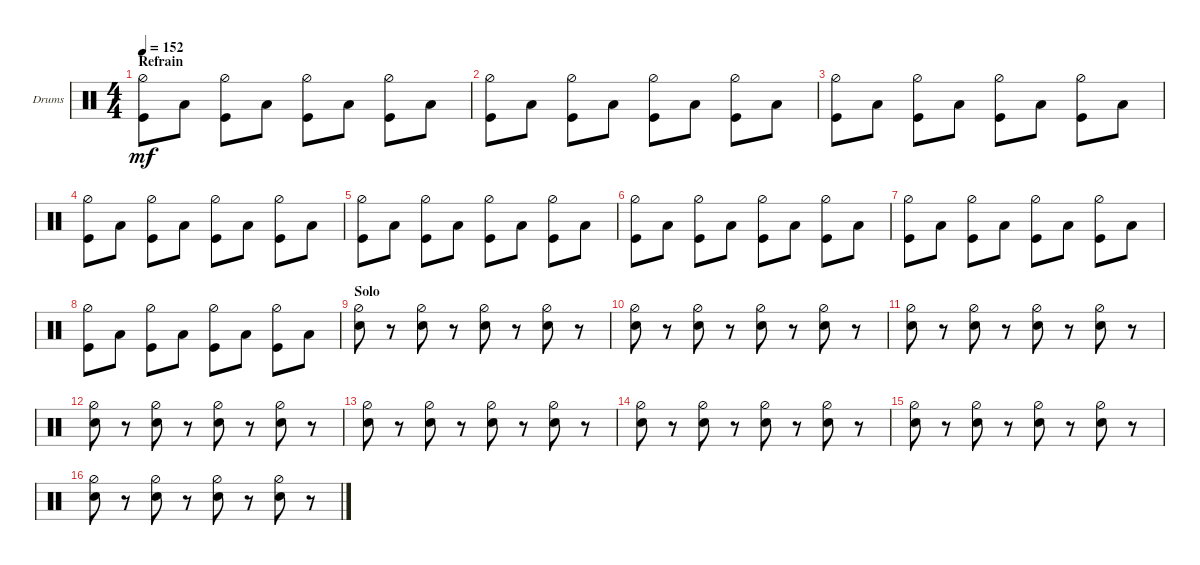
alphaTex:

\defaultSystemsLayout 4
\bracketExtendMode groupsimilarinstruments
\firstSystemTrackNameOrientation horizontal
\otherSystemsTrackNameOrientation horizontal
\track ("Dre Drum" "Drums") {instrument percussion}
\staff {score}
\articulation defaults
\ts (4 4)
\section ("" "Refrain")
\tempo 152
\clef neutral
\ks c
("Kick (hit)" "Hi-Hat (half)").8{dy mf} "Low Tom (hit)".8 ("Kick (hit)" "Hi-Hat (half)").8 "Low Tom (hit)".8 ("Kick (hit)" "Hi-Hat (half)").8 "Low Tom (hit)".8 ("Kick (hit)" "Hi-Hat (half)").8 "Low Tom (hit)".8 |
("Kick (hit)" "Hi-Hat (half)").8 "Low Tom (hit)".8 ("Kick (hit)" "Hi-Hat (half)").8 "Low Tom (hit)".8 ("Kick (hit)" "Hi-Hat (half)").8 "Low Tom (hit)".8 ("Kick (hit)" "Hi-Hat (half)").8 "Low Tom (hit)".8 |
("Kick (hit)" "Hi-Hat (half)").8 "Low Tom (hit)".8 ("Kick (hit)" "Hi-Hat (half)").8 "Low Tom (hit)".8 ("Kick (hit)" "Hi-Hat (half)").8 "Low Tom (hit)".8 ("Kick (hit)" "Hi-Hat (half)").8 "Low Tom (hit)".8 |
("Kick (hit)" "Hi-Hat (half)").8 "Low Tom (hit)".8 ("Kick (hit)" "Hi-Hat (half)").8 "Low Tom (hit)".8 ("Kick (hit)" "Hi-Hat (half)").8 "Low Tom (hit)".8 ("Kick (hit)" "Hi-Hat (half)").8 "Low Tom (hit)".8 |
("Kick (hit)" "Hi-Hat (half)").8 "Low Tom (hit)".8 ("Kick (hit)" "Hi-Hat (half)").8 "Low Tom (hit)".8 ("Kick (hit)" "Hi-Hat (half)").8 "Low Tom (hit)".8 ("Kick (hit)" "Hi-Hat (half)").8 "Low Tom (hit)".8 |
("Kick (hit)" "Hi-Hat (half)").8 "Low Tom (hit)".8 ("Kick (hit)" "Hi-Hat (half)").8 "Low Tom (hit)".8 ("Kick (hit)" "Hi-Hat (half)").8 "Low Tom (hit)".8 ("Kick (hit)" "Hi-Hat (half)").8 "Low Tom (hit)".8 |
("Kick (hit)" "Hi-Hat (half)").8 "Low Tom (hit)".8 ("Kick (hit)" "Hi-Hat (half)").8 "Low Tom (hit)".8 ("Kick (hit)" "Hi-Hat (half)").8 "Low Tom (hit)".8 ("Kick (hit)" "Hi-Hat (half)").8 "Low Tom (hit)".8 |
("Kick (hit)" "Hi-Hat (half)").8 "Low Tom (hit)".8 ("Kick (hit)" "Hi-Hat (half)").8 "Low Tom (hit)".8 ("Kick (hit)" "Hi-Hat (half)").8 "Low Tom (hit)".8 ("Kick (hit)" "Hi-Hat (half)").8 "Low Tom (hit)".8 |
\section ("" "Solo")
("Hi-Hat (half)" "Snare (hit) 2").8 r.8 ("Hi-Hat (half)" "Snare (hit) 2").8 r.8 ("Hi-Hat (half)" "Snare (hit) 2").8 r.8 ("Hi-Hat (half)" "Snare (hit) 2").8 r.8 |
("Hi-Hat (half)" "Snare (hit) 2").8 r.8 ("Hi-Hat (half)" "Snare (hit) 2").8 r.8 ("Hi-Hat (half)" "Snare (hit) 2").8 r.8 ("Hi-Hat (half)" "Snare (hit) 2").8 r.8 |
("Hi-Hat (half)" "Snare (hit) 2").8 r.8 ("Hi-Hat (half)" "Snare (hit) 2").8 r.8 ("Hi-Hat (half)" "Snare (hit) 2").8 r.8 ("Hi-Hat (half)" "Snare (hit) 2").8 r.8 |
("Hi-Hat (half)" "Snare (hit) 2").8 r.8 ("Hi-Hat (half)" "Snare (hit) 2").8 r.8 ("Hi-Hat (half)" "Snare (hit) 2").8 r.8 ("Hi-Hat (half)" "Snare (hit) 2").8 r.8 |
("Hi-Hat (half)" "Snare (hit) 2").8 r.8 ("Hi-Hat (half)" "Snare (hit) 2").8 r.8 ("Hi-Hat (half)" "Snare (hit) 2").8 r.8 ("Hi-Hat (half)" "Snare (hit) 2").8 r.8 |
("Hi-Hat (half)" "Snare (hit) 2").8 r.8 ("Hi-Hat (half)" "Snare (hit) 2").8 r.8 ("Hi-Hat (half)" "Snare (hit) 2").8 r.8 ("Hi-Hat (half)" "Snare (hit) 2").8 r.8 |
("Hi-Hat (half)" "Snare (hit) 2").8 r.8 ("Hi-Hat (half)" "Snare (hit) 2").8 r.8 ("Hi-Hat (half)" "Snare (hit) 2").8 r.8 ("Hi-Hat (half)" "Snare (hit) 2").8 r.8 |
("Hi-Hat (half)" "Snare (hit) 2").8 r.8 ("Hi-Hat (half)" "Snare (hit) 2").8 r.8 ("Hi-Hat (half)" "Snare (hit) 2").8 r.8 ("Hi-Hat (half)" "Snare (hit) 2").8 r.8
